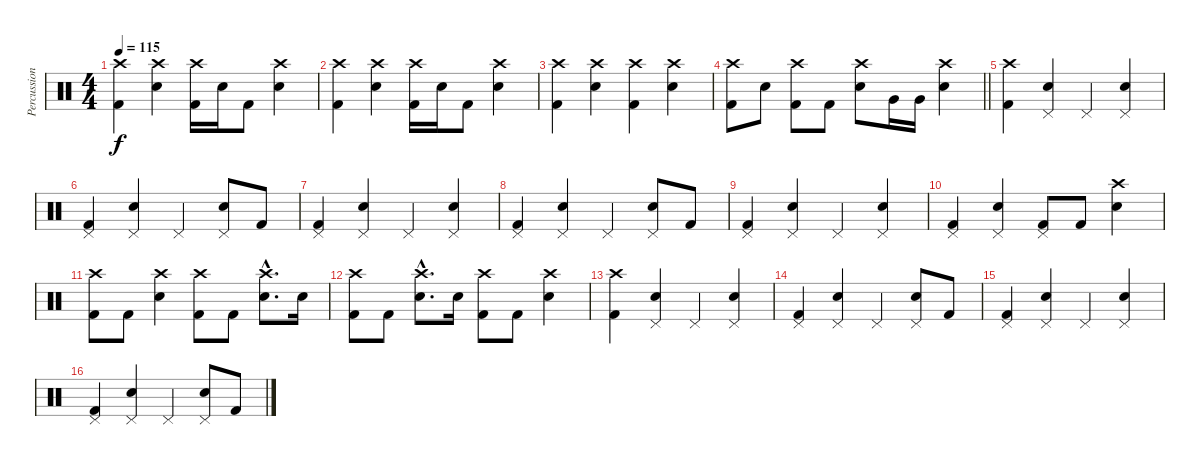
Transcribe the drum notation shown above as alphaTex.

\track ("Percussion" "Percussion") {instrument percussion}
\staff {score}
\articulation defaults
\ts (4 4)
\tempo 115
\clef neutral
\ks c
("Crash high (hit)" "Kick (hit) 2").4{dy f} ("Crash high (hit)" "Snare (hit) 2").4 ("Crash high (hit)" "Kick (hit) 2").16 "Snare (hit) 2".16 "Kick (hit) 2".8 ("Crash high (hit)" "Snare (hit) 2").4 |
("Crash high (hit)" "Kick (hit) 2").4 ("Crash high (hit)" "Snare (hit) 2").4 ("Crash high (hit)" "Kick (hit) 2").16 "Snare (hit) 2".16 "Kick (hit) 2".8 ("Crash high (hit)" "Snare (hit) 2").4 |
("Crash high (hit)" "Kick (hit) 2").4 ("Crash high (hit)" "Snare (hit) 2").4 ("Crash high (hit)" "Kick (hit) 2").4 ("Crash high (hit)" "Snare (hit) 2").4 |
\barLineRight lightlight
("Crash high (hit)" "Kick (hit) 2").8 "Snare (hit) 2".8 ("Crash high (hit)" "Kick (hit) 2").8 "Kick (hit) 2".8 ("Crash high (hit)" "Snare (hit) 2").8 "Very Low Tom (hit)".16 "Very Low Tom (hit)".16 ("Crash high (hit)" "Snare (hit) 2").4 |
("Crash high (hit)" "Kick (hit) 2").4 ("Pedal Hi-Hat (hit)" "Snare (hit) 2").4 "Pedal Hi-Hat (hit)".4 ("Pedal Hi-Hat (hit)" "Snare (hit) 2").4 |
("Pedal Hi-Hat (hit)" "Kick (hit) 2").4 ("Pedal Hi-Hat (hit)" "Snare (hit) 2").4 "Pedal Hi-Hat (hit)".4 ("Pedal Hi-Hat (hit)" "Snare (hit) 2").8 "Kick (hit) 2".8 |
("Pedal Hi-Hat (hit)" "Kick (hit) 2").4 ("Pedal Hi-Hat (hit)" "Snare (hit) 2").4 "Pedal Hi-Hat (hit)".4 ("Pedal Hi-Hat (hit)" "Snare (hit) 2").4 |
("Pedal Hi-Hat (hit)" "Kick (hit) 2").4 ("Pedal Hi-Hat (hit)" "Snare (hit) 2").4 "Pedal Hi-Hat (hit)".4 ("Pedal Hi-Hat (hit)" "Snare (hit) 2").8 "Kick (hit) 2".8 |
("Pedal Hi-Hat (hit)" "Kick (hit) 2").4 ("Pedal Hi-Hat (hit)" "Snare (hit) 2").4 "Pedal Hi-Hat (hit)".4 ("Pedal Hi-Hat (hit)" "Snare (hit) 2").4 |
("Pedal Hi-Hat (hit)" "Kick (hit) 2").4 ("Pedal Hi-Hat (hit)" "Snare (hit) 2").4 ("Pedal Hi-Hat (hit)" "Kick (hit) 2").8 "Kick (hit) 2".8 ("Crash high (hit)" "Snare (hit) 2").4 |
("Crash high (hit)" "Kick (hit) 2").8 "Kick (hit) 2".8 ("Crash high (hit)" "Snare (hit) 2").4 ("Crash high (hit)" "Kick (hit) 2").8 "Kick (hit) 2".8 ("Crash high (hit)"{hac} "Snare (hit) 2"{hac}).8{d} "Snare (hit) 2".16 |
("Crash high (hit)" "Kick (hit) 2").8 "Kick (hit) 2".8 ("Crash high (hit)"{hac} "Snare (hit) 2"{hac}).8{d} "Snare (hit) 2".16 ("Crash high (hit)" "Kick (hit) 2").8 "Kick (hit) 2".8 ("Crash high (hit)" "Snare (hit) 2").4 |
("Crash high (hit)" "Kick (hit) 2").4 ("Pedal Hi-Hat (hit)" "Snare (hit) 2").4 "Pedal Hi-Hat (hit)".4 ("Pedal Hi-Hat (hit)" "Snare (hit) 2").4 |
("Pedal Hi-Hat (hit)" "Kick (hit) 2").4 ("Pedal Hi-Hat (hit)" "Snare (hit) 2").4 "Pedal Hi-Hat (hit)".4 ("Pedal Hi-Hat (hit)" "Snare (hit) 2").8 "Kick (hit) 2".8 |
("Pedal Hi-Hat (hit)" "Kick (hit) 2").4 ("Pedal Hi-Hat (hit)" "Snare (hit) 2").4 "Pedal Hi-Hat (hit)".4 ("Pedal Hi-Hat (hit)" "Snare (hit) 2").4 |
("Pedal Hi-Hat (hit)" "Kick (hit) 2").4 ("Pedal Hi-Hat (hit)" "Snare (hit) 2").4 "Pedal Hi-Hat (hit)".4 ("Pedal Hi-Hat (hit)" "Snare (hit) 2").8 "Kick (hit) 2".8
